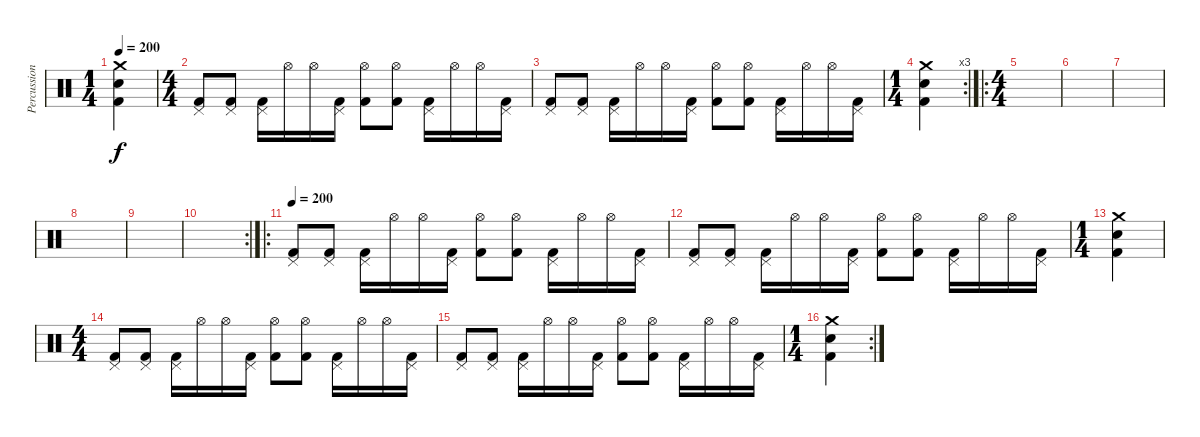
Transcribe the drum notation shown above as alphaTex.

\track ("Percussion" "Percussion") {instrument percussion}
\staff {score}
\articulation defaults
\ts (1 4)
\tempo 200
\clef neutral
\ks c
("Crash medium (hit)" "Electric Snare (hit)" "Kick (hit) 2").4{dy f} |
\ts (4 4)
("Pedal Hi-Hat (hit)" "Kick (hit) 2").8 ("Pedal Hi-Hat (hit)" "Kick (hit) 2").8 ("Pedal Hi-Hat (hit)" "Kick (hit) 2").16 "Hi-Hat (open)".16 "Hi-Hat (open)".16 ("Pedal Hi-Hat (hit)" "Kick (hit) 2").16 ("Hi-Hat (open)" "Kick (hit) 2").8 ("Hi-Hat (open)" "Kick (hit) 2").8 ("Pedal Hi-Hat (hit)" "Kick (hit) 2").16 "Hi-Hat (open)".16 "Hi-Hat (open)".16 ("Pedal Hi-Hat (hit)" "Kick (hit) 2").16 |
("Pedal Hi-Hat (hit)" "Kick (hit) 2").8 ("Pedal Hi-Hat (hit)" "Kick (hit) 2").8 ("Pedal Hi-Hat (hit)" "Kick (hit) 2").16 "Hi-Hat (open)".16 "Hi-Hat (open)".16 ("Pedal Hi-Hat (hit)" "Kick (hit) 2").16 ("Hi-Hat (open)" "Kick (hit) 2").8 ("Hi-Hat (open)" "Kick (hit) 2").8 ("Pedal Hi-Hat (hit)" "Kick (hit) 2").16 "Hi-Hat (open)".16 "Hi-Hat (open)".16 ("Pedal Hi-Hat (hit)" "Kick (hit) 2").16 |
\rc 3
\ts (1 4)
("Crash medium (hit)" "Electric Snare (hit)" "Kick (hit) 2").4 |
\ro
\ts (4 4)
|
|
|
|
|
\rc 2
|
\ro
\tempo 200
("Pedal Hi-Hat (hit)" "Kick (hit) 2").8 ("Pedal Hi-Hat (hit)" "Kick (hit) 2").8 ("Pedal Hi-Hat (hit)" "Kick (hit) 2").16 "Hi-Hat (open)".16 "Hi-Hat (open)".16 ("Pedal Hi-Hat (hit)" "Kick (hit) 2").16 ("Hi-Hat (open)" "Kick (hit) 2").8 ("Hi-Hat (open)" "Kick (hit) 2").8 ("Pedal Hi-Hat (hit)" "Kick (hit) 2").16 "Hi-Hat (open)".16 "Hi-Hat (open)".16 ("Pedal Hi-Hat (hit)" "Kick (hit) 2").16 |
("Pedal Hi-Hat (hit)" "Kick (hit) 2").8 ("Pedal Hi-Hat (hit)" "Kick (hit) 2").8 ("Pedal Hi-Hat (hit)" "Kick (hit) 2").16 "Hi-Hat (open)".16 "Hi-Hat (open)".16 ("Pedal Hi-Hat (hit)" "Kick (hit) 2").16 ("Hi-Hat (open)" "Kick (hit) 2").8 ("Hi-Hat (open)" "Kick (hit) 2").8 ("Pedal Hi-Hat (hit)" "Kick (hit) 2").16 "Hi-Hat (open)".16 "Hi-Hat (open)".16 ("Pedal Hi-Hat (hit)" "Kick (hit) 2").16 |
\ts (1 4)
("Crash medium (hit)" "Electric Snare (hit)" "Kick (hit) 2").4 |
\ts (4 4)
("Pedal Hi-Hat (hit)" "Kick (hit) 2").8 ("Pedal Hi-Hat (hit)" "Kick (hit) 2").8 ("Pedal Hi-Hat (hit)" "Kick (hit) 2").16 "Hi-Hat (open)".16 "Hi-Hat (open)".16 ("Pedal Hi-Hat (hit)" "Kick (hit) 2").16 ("Hi-Hat (open)" "Kick (hit) 2").8 ("Hi-Hat (open)" "Kick (hit) 2").8 ("Pedal Hi-Hat (hit)" "Kick (hit) 2").16 "Hi-Hat (open)".16 "Hi-Hat (open)".16 ("Pedal Hi-Hat (hit)" "Kick (hit) 2").16 |
("Pedal Hi-Hat (hit)" "Kick (hit) 2").8 ("Pedal Hi-Hat (hit)" "Kick (hit) 2").8 ("Pedal Hi-Hat (hit)" "Kick (hit) 2").16 "Hi-Hat (open)".16 "Hi-Hat (open)".16 ("Pedal Hi-Hat (hit)" "Kick (hit) 2").16 ("Hi-Hat (open)" "Kick (hit) 2").8 ("Hi-Hat (open)" "Kick (hit) 2").8 ("Pedal Hi-Hat (hit)" "Kick (hit) 2").16 "Hi-Hat (open)".16 "Hi-Hat (open)".16 ("Pedal Hi-Hat (hit)" "Kick (hit) 2").16 |
\rc 2
\ts (1 4)
("Crash medium (hit)" "Electric Snare (hit)" "Kick (hit) 2").4
